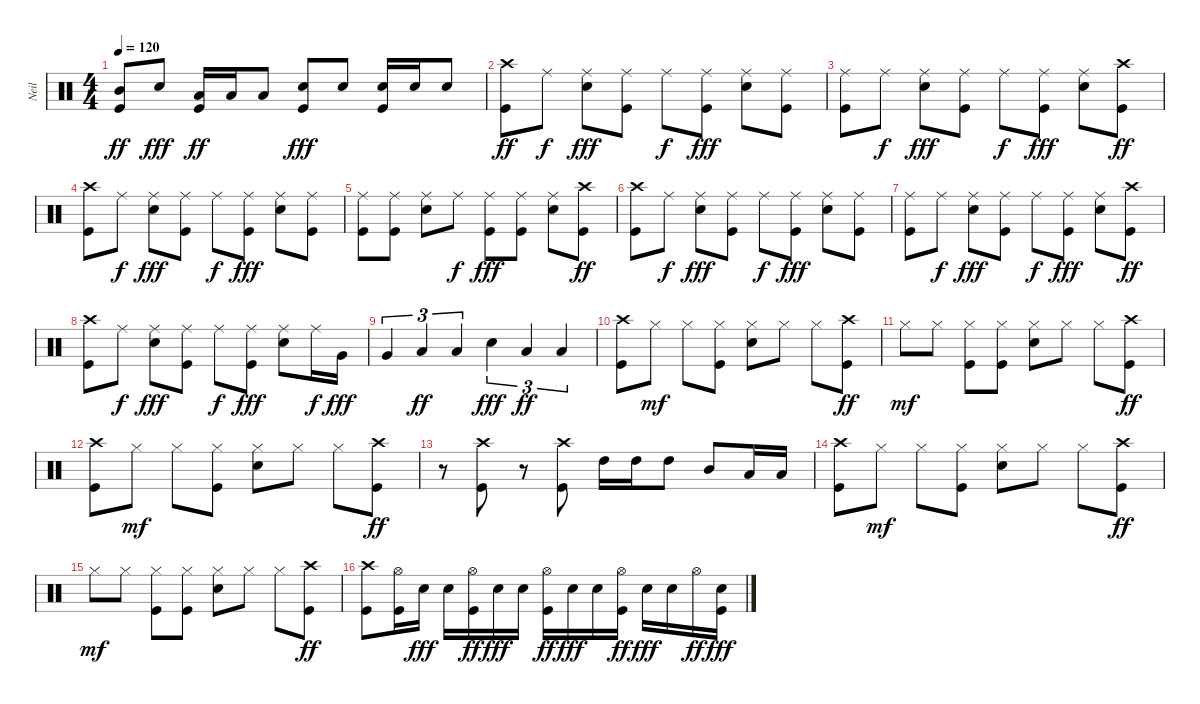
\track ("Neil" "Neil") {instrument percussion}
\staff {score}
\articulation defaults
\ts (4 4)
\tempo 120
\clef neutral
\ks c
("Kick (hit)" "Mid Tom (hit)").8{dy ff} "Snare (hit) 2".8{dy fff} ("Kick (hit)" "Low Tom (hit)").16{dy ff} "Low Tom (hit)".16 "Low Tom (hit)".8 ("Kick (hit)" "Snare (hit) 2").8{dy fff} "Snare (hit) 2".8 ("Kick (hit)" "Snare (hit) 2").16 "Snare (hit) 2".16 "Snare (hit) 2".8 |
("Kick (hit)" "Crash high (hit)").8{dy ff} "Ride (middle)".8{dy f} ("Snare (hit) 2" "Ride (middle)").8{dy fff} ("Kick (hit)" "Ride (middle)").8 "Ride (middle)".8{dy f} ("Kick (hit)" "Ride (middle)").8{dy fff} ("Snare (hit) 2" "Ride (middle)").8 ("Kick (hit)" "Ride (middle)").8 |
("Kick (hit)" "Ride (middle)").8 "Ride (middle)".8{dy f} ("Snare (hit) 2" "Ride (middle)").8{dy fff} ("Kick (hit)" "Ride (middle)").8 "Ride (middle)".8{dy f} ("Kick (hit)" "Ride (middle)").8{dy fff} ("Snare (hit) 2" "Ride (middle)").8 ("Kick (hit)" "Crash high (hit)").8{dy ff} |
("Kick (hit)" "Crash high (hit)").8 "Ride (middle)".8{dy f} ("Snare (hit) 2" "Ride (middle)").8{dy fff} ("Kick (hit)" "Ride (middle)").8 "Ride (middle)".8{dy f} ("Kick (hit)" "Ride (middle)").8{dy fff} ("Snare (hit) 2" "Ride (middle)").8 ("Kick (hit)" "Ride (middle)").8 |
("Kick (hit)" "Ride (middle)").8 ("Kick (hit)" "Ride (middle)").8 ("Snare (hit) 2" "Ride (middle)").8 "Ride (middle)".8{dy f} ("Kick (hit)" "Ride (middle)").8{dy fff} ("Kick (hit)" "Ride (middle)").8 ("Snare (hit) 2" "Ride (middle)").8 ("Kick (hit)" "Crash high (hit)").8{dy ff} |
("Kick (hit)" "Crash high (hit)").8 "Ride (middle)".8{dy f} ("Snare (hit) 2" "Ride (middle)").8{dy fff} ("Kick (hit)" "Ride (middle)").8 "Ride (middle)".8{dy f} ("Kick (hit)" "Ride (middle)").8{dy fff} ("Snare (hit) 2" "Ride (middle)").8 ("Kick (hit)" "Ride (middle)").8 |
("Kick (hit)" "Ride (middle)").8 "Ride (middle)".8{dy f} ("Snare (hit) 2" "Ride (middle)").8{dy fff} ("Kick (hit)" "Ride (middle)").8 "Ride (middle)".8{dy f} ("Kick (hit)" "Ride (middle)").8{dy fff} ("Snare (hit) 2" "Ride (middle)").8 ("Kick (hit)" "Crash high (hit)").8{dy ff} |
("Kick (hit)" "Crash high (hit)").8 "Ride (middle)".8{dy f} ("Snare (hit) 2" "Ride (middle)").8{dy fff} ("Kick (hit)" "Ride (middle)").8 "Ride (middle)".8{dy f} ("Kick (hit)" "Ride (middle)").8{dy fff} ("Snare (hit) 2" "Ride (middle)").8 "Ride (middle)".16{dy f} "Very Low Tom (hit)".16{dy fff} |
"Very Low Tom (hit)".4{tu (3 2)} "Low Tom (hit)".4{tu (3 2) dy ff} "Low Tom (hit)".4{tu (3 2)} "Snare (hit) 2".4{tu (3 2) dy fff} "Low Tom (hit)".4{tu (3 2) dy ff} "Low Tom (hit)".4{tu (3 2)} |
("Kick (hit)" "Crash high (hit)").8 "Hi-Hat (closed)".8{dy mf} "Hi-Hat (closed)".8 ("Kick (hit)" "Hi-Hat (closed)").8 ("Snare (hit) 2" "Hi-Hat (closed)").8 "Hi-Hat (closed)".8 "Hi-Hat (closed)".8 ("Kick (hit)" "Crash high (hit)").8{dy ff} |
"Hi-Hat (closed)".8{dy mf} "Hi-Hat (closed)".8 ("Kick (hit)" "Hi-Hat (closed)").8 ("Kick (hit)" "Hi-Hat (closed)").8 ("Snare (hit) 2" "Hi-Hat (closed)").8 "Hi-Hat (closed)".8 "Hi-Hat (closed)".8 ("Kick (hit)" "Crash high (hit)").8{dy ff} |
("Kick (hit)" "Crash high (hit)").8 "Hi-Hat (closed)".8{dy mf} "Hi-Hat (closed)".8 ("Kick (hit)" "Hi-Hat (closed)").8 ("Snare (hit) 2" "Hi-Hat (closed)").8 "Hi-Hat (closed)".8 "Hi-Hat (closed)".8 ("Kick (hit)" "Crash high (hit)").8{dy ff} |
r.8 ("Kick (hit)" "Crash high (hit)").8 r.8 ("Kick (hit)" "Crash high (hit)").8 "High Tom (hit)".16 "High Tom (hit)".16 "High Tom (hit)".8 "Mid Tom (hit)".8 "Low Tom (hit)".16 "Low Tom (hit)".16 |
("Kick (hit)" "Crash high (hit)").8 "Hi-Hat (closed)".8{dy mf} "Hi-Hat (closed)".8 ("Kick (hit)" "Hi-Hat (closed)").8 ("Snare (hit) 2" "Hi-Hat (closed)").8 "Hi-Hat (closed)".8 "Hi-Hat (closed)".8 ("Kick (hit)" "Crash high (hit)").8{dy ff} |
"Hi-Hat (closed)".8{dy mf} "Hi-Hat (closed)".8 ("Kick (hit)" "Hi-Hat (closed)").8 ("Kick (hit)" "Hi-Hat (closed)").8 ("Snare (hit) 2" "Hi-Hat (closed)").8 "Hi-Hat (closed)".8 "Hi-Hat (closed)".8 ("Kick (hit)" "Crash high (hit)").8{dy ff} |
("Kick (hit)" "Crash high (hit)").8 ("Kick (hit)" "Hi-Hat (open)").16 "Snare (hit) 2".16{dy fff} "Snare (hit) 2".16 ("Kick (hit)" "Hi-Hat (open)").16{dy ff} "Snare (hit) 2".16{dy fff} "Snare (hit) 2".16 ("Kick (hit)" "Hi-Hat (open)").16{dy ff} "Snare (hit) 2".16{dy fff} "Snare (hit) 2".16 ("Kick (hit)" "Hi-Hat (open)").16{dy ff} "Snare (hit) 2".16{dy fff} "Snare (hit) 2".16 "Hi-Hat (open)".16{dy ff} ("Kick (hit)" "Snare (hit) 2").16{dy fff}
